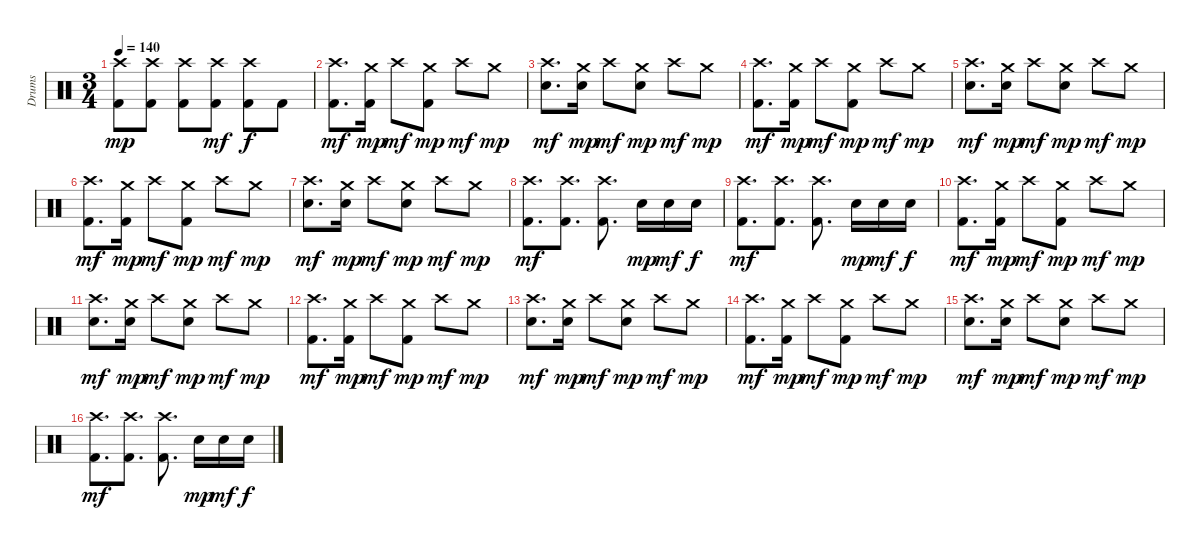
\track ("Drums" "Drums") {instrument percussion}
\staff {score}
\articulation defaults
\ts (3 4)
\tempo 140
\clef neutral
\ks c
("Crash high (hit)" "Kick (hit) 2").8{dy mp} ("Crash high (hit)" "Kick (hit) 2").8 ("Crash high (hit)" "Kick (hit) 2").8 ("Crash high (hit)" "Kick (hit) 2").8{dy mf} ("Crash high (hit)" "Kick (hit) 2").8{dy f} "Kick (hit) 2".8 |
("Crash high (hit)" "Kick (hit) 2").8{d dy mf} ("Crash medium (hit)" "Kick (hit) 2").16{dy mp} "Crash high (hit)".8{dy mf} ("Crash medium (hit)" "Kick (hit) 2").8{dy mp} "Crash high (hit)".8{dy mf} "Crash medium (hit)".8{dy mp} |
("Crash high (hit)" "Snare (hit) 2").8{d dy mf} ("Crash medium (hit)" "Snare (hit) 2").16{dy mp} "Crash high (hit)".8{dy mf} ("Crash medium (hit)" "Snare (hit) 2").8{dy mp} "Crash high (hit)".8{dy mf} "Crash medium (hit)".8{dy mp} |
("Crash high (hit)" "Kick (hit) 2").8{d dy mf} ("Crash medium (hit)" "Kick (hit) 2").16{dy mp} "Crash high (hit)".8{dy mf} ("Crash medium (hit)" "Kick (hit) 2").8{dy mp} "Crash high (hit)".8{dy mf} "Crash medium (hit)".8{dy mp} |
("Crash high (hit)" "Snare (hit) 2").8{d dy mf} ("Crash medium (hit)" "Snare (hit) 2").16{dy mp} "Crash high (hit)".8{dy mf} ("Crash medium (hit)" "Snare (hit) 2").8{dy mp} "Crash high (hit)".8{dy mf} "Crash medium (hit)".8{dy mp} |
("Crash high (hit)" "Kick (hit) 2").8{d dy mf} ("Crash medium (hit)" "Kick (hit) 2").16{dy mp} "Crash high (hit)".8{dy mf} ("Crash medium (hit)" "Kick (hit) 2").8{dy mp} "Crash high (hit)".8{dy mf} "Crash medium (hit)".8{dy mp} |
("Crash high (hit)" "Snare (hit) 2").8{d dy mf} ("Crash medium (hit)" "Snare (hit) 2").16{dy mp} "Crash high (hit)".8{dy mf} ("Crash medium (hit)" "Snare (hit) 2").8{dy mp} "Crash high (hit)".8{dy mf} "Crash medium (hit)".8{dy mp} |
("Crash high (hit)" "Kick (hit) 2").8{d dy mf} ("Crash high (hit)" "Kick (hit) 2").8{d} ("Crash high (hit)" "Kick (hit) 2").8{d} "Snare (hit) 2".16{dy mp} "Snare (hit) 2".16{dy mf} "Snare (hit) 2".16{dy f} |
("Crash high (hit)" "Kick (hit) 2").8{d dy mf} ("Crash high (hit)" "Kick (hit) 2").8{d} ("Crash high (hit)" "Kick (hit) 2").8{d} "Snare (hit) 2".16{dy mp} "Snare (hit) 2".16{dy mf} "Snare (hit) 2".16{dy f} |
("Crash high (hit)" "Kick (hit) 2").8{d dy mf} ("Crash medium (hit)" "Kick (hit) 2").16{dy mp} "Crash high (hit)".8{dy mf} ("Crash medium (hit)" "Kick (hit) 2").8{dy mp} "Crash high (hit)".8{dy mf} "Crash medium (hit)".8{dy mp} |
("Crash high (hit)" "Snare (hit) 2").8{d dy mf} ("Crash medium (hit)" "Snare (hit) 2").16{dy mp} "Crash high (hit)".8{dy mf} ("Crash medium (hit)" "Snare (hit) 2").8{dy mp} "Crash high (hit)".8{dy mf} "Crash medium (hit)".8{dy mp} |
("Crash high (hit)" "Kick (hit) 2").8{d dy mf} ("Crash medium (hit)" "Kick (hit) 2").16{dy mp} "Crash high (hit)".8{dy mf} ("Crash medium (hit)" "Kick (hit) 2").8{dy mp} "Crash high (hit)".8{dy mf} "Crash medium (hit)".8{dy mp} |
("Crash high (hit)" "Snare (hit) 2").8{d dy mf} ("Crash medium (hit)" "Snare (hit) 2").16{dy mp} "Crash high (hit)".8{dy mf} ("Crash medium (hit)" "Snare (hit) 2").8{dy mp} "Crash high (hit)".8{dy mf} "Crash medium (hit)".8{dy mp} |
("Crash high (hit)" "Kick (hit) 2").8{d dy mf} ("Crash medium (hit)" "Kick (hit) 2").16{dy mp} "Crash high (hit)".8{dy mf} ("Crash medium (hit)" "Kick (hit) 2").8{dy mp} "Crash high (hit)".8{dy mf} "Crash medium (hit)".8{dy mp} |
("Crash high (hit)" "Snare (hit) 2").8{d dy mf} ("Crash medium (hit)" "Snare (hit) 2").16{dy mp} "Crash high (hit)".8{dy mf} ("Crash medium (hit)" "Snare (hit) 2").8{dy mp} "Crash high (hit)".8{dy mf} "Crash medium (hit)".8{dy mp} |
("Crash high (hit)" "Kick (hit) 2").8{d dy mf} ("Crash high (hit)" "Kick (hit) 2").8{d} ("Crash high (hit)" "Kick (hit) 2").8{d} "Snare (hit) 2".16{dy mp} "Snare (hit) 2".16{dy mf} "Snare (hit) 2".16{dy f}
